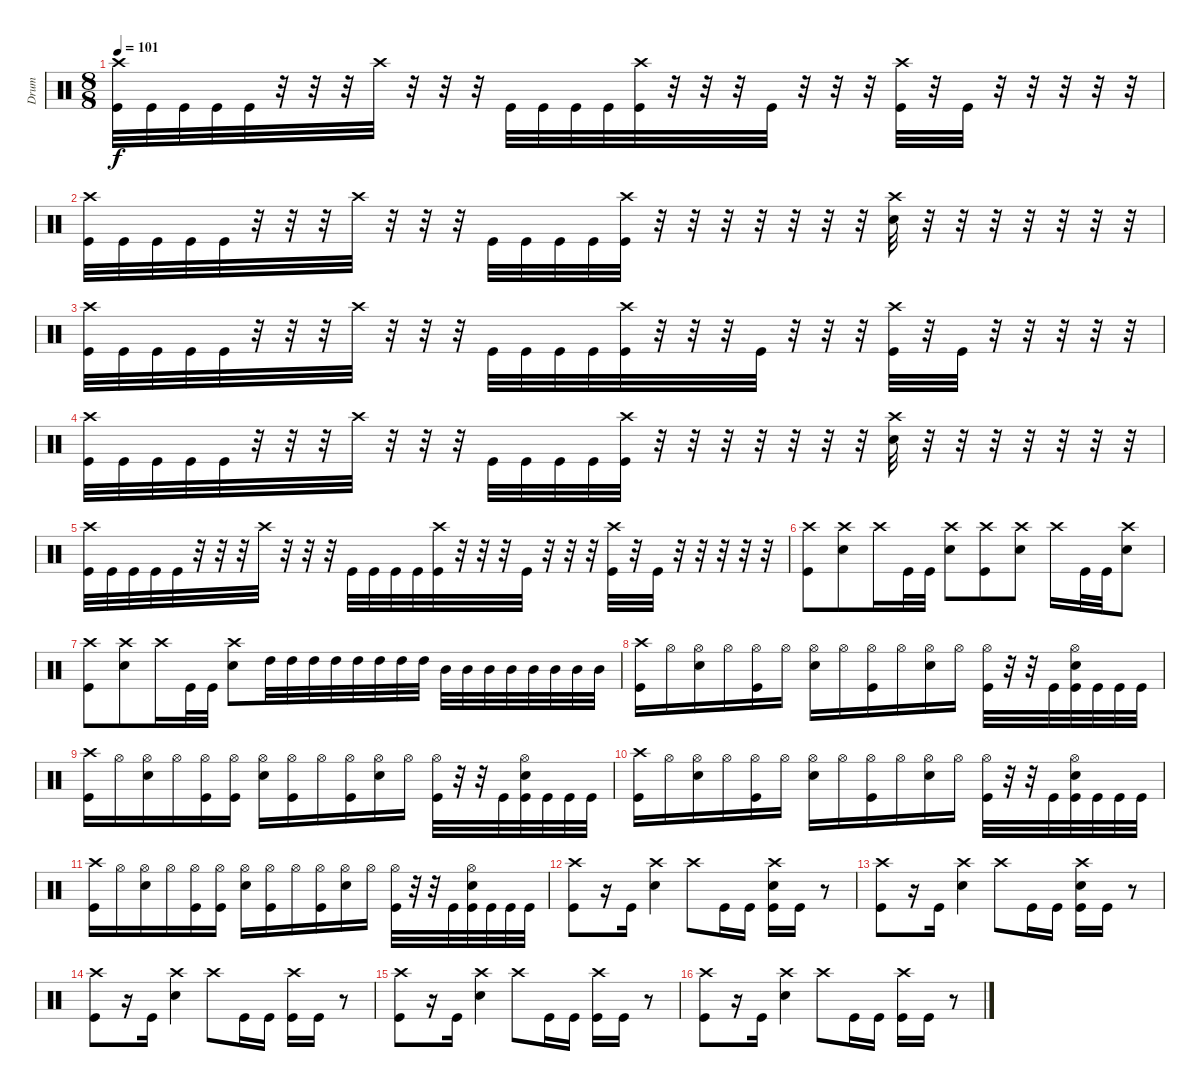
\track ("Drum" "Drum") {instrument percussion}
\staff {score}
\articulation defaults
\ts (8 8)
\tempo 101
\clef neutral
\ks c
("Crash high (hit)" "Kick (hit)").32{dy f} "Kick (hit)".32 "Kick (hit)".32 "Kick (hit)".32 "Kick (hit)".32 r.32 r.32 r.32 "Crash high (hit)".32 r.32 r.32 r.32 "Kick (hit)".32 "Kick (hit)".32 "Kick (hit)".32 "Kick (hit)".32 ("Crash high (hit)" "Kick (hit)").32 r.32 r.32 r.32 "Kick (hit)".32 r.32 r.32 r.32 ("Crash high (hit)" "Kick (hit)").32 r.32 "Kick (hit)".32 r.32 r.32 r.32 r.32 r.32 |
("Crash high (hit)" "Kick (hit)").32 "Kick (hit)".32 "Kick (hit)".32 "Kick (hit)".32 "Kick (hit)".32 r.32 r.32 r.32 "Crash high (hit)".32 r.32 r.32 r.32 "Kick (hit)".32 "Kick (hit)".32 "Kick (hit)".32 "Kick (hit)".32 ("Crash high (hit)" "Kick (hit)").32 r.32 r.32 r.32 r.32 r.32 r.32 r.32 ("Crash high (hit)" "Electric Snare (hit)").32 r.32 r.32 r.32 r.32 r.32 r.32 r.32 |
("Crash high (hit)" "Kick (hit)").32 "Kick (hit)".32 "Kick (hit)".32 "Kick (hit)".32 "Kick (hit)".32 r.32 r.32 r.32 "Crash high (hit)".32 r.32 r.32 r.32 "Kick (hit)".32 "Kick (hit)".32 "Kick (hit)".32 "Kick (hit)".32 ("Crash high (hit)" "Kick (hit)").32 r.32 r.32 r.32 "Kick (hit)".32 r.32 r.32 r.32 ("Crash high (hit)" "Kick (hit)").32 r.32 "Kick (hit)".32 r.32 r.32 r.32 r.32 r.32 |
("Crash high (hit)" "Kick (hit)").32 "Kick (hit)".32 "Kick (hit)".32 "Kick (hit)".32 "Kick (hit)".32 r.32 r.32 r.32 "Crash high (hit)".32 r.32 r.32 r.32 "Kick (hit)".32 "Kick (hit)".32 "Kick (hit)".32 "Kick (hit)".32 ("Crash high (hit)" "Kick (hit)").32 r.32 r.32 r.32 r.32 r.32 r.32 r.32 ("Crash high (hit)" "Electric Snare (hit)").32 r.32 r.32 r.32 r.32 r.32 r.32 r.32 |
("Crash high (hit)" "Kick (hit)").32 "Kick (hit)".32 "Kick (hit)".32 "Kick (hit)".32 "Kick (hit)".32 r.32 r.32 r.32 "Crash high (hit)".32 r.32 r.32 r.32 "Kick (hit)".32 "Kick (hit)".32 "Kick (hit)".32 "Kick (hit)".32 ("Crash high (hit)" "Kick (hit)").32 r.32 r.32 r.32 "Kick (hit)".32 r.32 r.32 r.32 ("Crash high (hit)" "Kick (hit)").32 r.32 "Kick (hit)".32 r.32 r.32 r.32 r.32 r.32 |
("Crash high (hit)" "Kick (hit)").8 ("Crash high (hit)" "Electric Snare (hit)").8 "Crash high (hit)".16 "Kick (hit)".32 "Kick (hit)".32 ("Crash high (hit)" "Electric Snare (hit)").8 ("Crash high (hit)" "Kick (hit)").8 ("Crash high (hit)" "Electric Snare (hit)").8 "Crash high (hit)".16 "Kick (hit)".32 "Kick (hit)".32 ("Crash high (hit)" "Electric Snare (hit)").8 |
("Crash high (hit)" "Kick (hit)").8 ("Crash high (hit)" "Electric Snare (hit)").8 "Crash high (hit)".16 "Kick (hit)".32 "Kick (hit)".32 ("Crash high (hit)" "Electric Snare (hit)").8 "High Tom (hit)".32 "High Tom (hit)".32 "High Tom (hit)".32 "High Tom (hit)".32 "High Tom (hit)".32 "High Tom (hit)".32 "High Tom (hit)".32 "High Tom (hit)".32 "Mid Tom (hit)".32 "Mid Tom (hit)".32 "Mid Tom (hit)".32 "Mid Tom (hit)".32 "Mid Tom (hit)".32 "Mid Tom (hit)".32 "Mid Tom (hit)".32 "Mid Tom (hit)".32 |
("Crash high (hit)" "Kick (hit)").16 "Hi-Hat (open)".16 ("Hi-Hat (open)" "Snare (hit) 2").16 "Hi-Hat (open)".16 ("Hi-Hat (open)" "Kick (hit)").16 "Hi-Hat (open)".16 ("Hi-Hat (open)" "Snare (hit) 2").16 "Hi-Hat (open)".16 ("Hi-Hat (open)" "Kick (hit)").16 "Hi-Hat (open)".16 ("Hi-Hat (open)" "Snare (hit) 2").16 "Hi-Hat (open)".16 ("Hi-Hat (open)" "Kick (hit)").32 r.32 r.32 "Kick (hit)".32 ("Hi-Hat (open)" "Snare (hit) 2" "Kick (hit)").32 "Kick (hit)".32 "Kick (hit)".32 "Kick (hit)".32 |
("Crash high (hit)" "Kick (hit)").16 "Hi-Hat (open)".16 ("Hi-Hat (open)" "Snare (hit) 2").16 "Hi-Hat (open)".16 ("Hi-Hat (open)" "Kick (hit)").16 ("Hi-Hat (open)" "Kick (hit)").16 ("Hi-Hat (open)" "Snare (hit) 2").16 ("Hi-Hat (open)" "Kick (hit)").16 "Hi-Hat (open)".16 ("Hi-Hat (open)" "Kick (hit)").16 ("Hi-Hat (open)" "Snare (hit) 2").16 "Hi-Hat (open)".16 ("Hi-Hat (open)" "Kick (hit)").32 r.32 r.32 "Kick (hit)".32 ("Hi-Hat (open)" "Snare (hit) 2" "Kick (hit)").32 "Kick (hit)".32 "Kick (hit)".32 "Kick (hit)".32 |
("Crash high (hit)" "Kick (hit)").16 "Hi-Hat (open)".16 ("Hi-Hat (open)" "Snare (hit) 2").16 "Hi-Hat (open)".16 ("Hi-Hat (open)" "Kick (hit)").16 "Hi-Hat (open)".16 ("Hi-Hat (open)" "Snare (hit) 2").16 "Hi-Hat (open)".16 ("Hi-Hat (open)" "Kick (hit)").16 "Hi-Hat (open)".16 ("Hi-Hat (open)" "Snare (hit) 2").16 "Hi-Hat (open)".16 ("Hi-Hat (open)" "Kick (hit)").32 r.32 r.32 "Kick (hit)".32 ("Hi-Hat (open)" "Snare (hit) 2" "Kick (hit)").32 "Kick (hit)".32 "Kick (hit)".32 "Kick (hit)".32 |
("Crash high (hit)" "Kick (hit)").16 "Hi-Hat (open)".16 ("Hi-Hat (open)" "Snare (hit) 2").16 "Hi-Hat (open)".16 ("Hi-Hat (open)" "Kick (hit)").16 ("Hi-Hat (open)" "Kick (hit)").16 ("Hi-Hat (open)" "Snare (hit) 2").16 ("Hi-Hat (open)" "Kick (hit)").16 "Hi-Hat (open)".16 ("Hi-Hat (open)" "Kick (hit)").16 ("Hi-Hat (open)" "Snare (hit) 2").16 "Hi-Hat (open)".16 ("Hi-Hat (open)" "Kick (hit)").32 r.32 r.32 "Kick (hit)".32 ("Hi-Hat (open)" "Snare (hit) 2" "Kick (hit)").32 "Kick (hit)".32 "Kick (hit)".32 "Kick (hit)".32 |
("Crash high (hit)" "Kick (hit)").8 r.16 "Kick (hit)".16 ("Crash high (hit)" "Snare (hit) 2").4 "Crash high (hit)".8 "Kick (hit)".16 "Kick (hit)".16 ("Crash high (hit)" "Snare (hit) 2" "Kick (hit)").16 "Kick (hit)".16 r.8 |
("Crash high (hit)" "Kick (hit)").8 r.16 "Kick (hit)".16 ("Crash high (hit)" "Snare (hit) 2").4 "Crash high (hit)".8 "Kick (hit)".16 "Kick (hit)".16 ("Crash high (hit)" "Snare (hit) 2" "Kick (hit)").16 "Kick (hit)".16 r.8 |
("Crash high (hit)" "Kick (hit)").8 r.16 "Kick (hit)".16 ("Crash high (hit)" "Snare (hit) 2").4 "Crash high (hit)".8 "Kick (hit)".16 "Kick (hit)".16 ("Crash high (hit)" "Kick (hit)").16 "Kick (hit)".16 r.8 |
("Crash high (hit)" "Kick (hit)").8 r.16 "Kick (hit)".16 ("Crash high (hit)" "Snare (hit) 2").4 "Crash high (hit)".8 "Kick (hit)".16 "Kick (hit)".16 ("Crash high (hit)" "Kick (hit)").16 "Kick (hit)".16 r.8 |
("Crash high (hit)" "Kick (hit)").8 r.16 "Kick (hit)".16 ("Crash high (hit)" "Snare (hit) 2").4 "Crash high (hit)".8 "Kick (hit)".16 "Kick (hit)".16 ("Crash high (hit)" "Kick (hit)").16 "Kick (hit)".16 r.8
